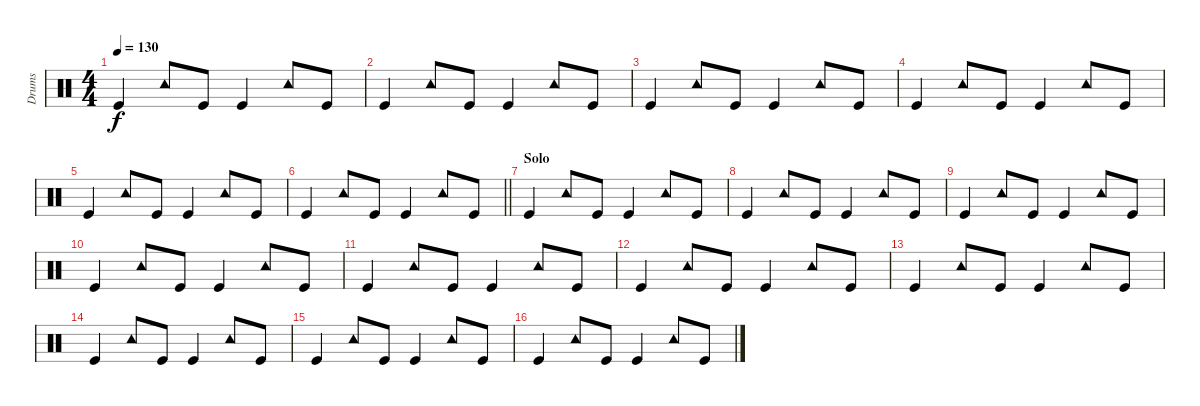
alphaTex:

\track ("Drums" "Drums") {instrument percussion}
\staff {score}
\articulation defaults
\ts (4 4)
\tempo 130
\clef neutral
\ks c "Kick (hit)".4{dy f} "Tambourine (hit)".8 "Kick (hit)".8 "Kick (hit)".4 "Tambourine (hit)".8 "Kick (hit)".8
|
"Kick (hit)".4 "Tambourine (hit)".8 "Kick (hit)".8 "Kick (hit)".4 "Tambourine (hit)".8 "Kick (hit)".8 |
"Kick (hit)".4 "Tambourine (hit)".8 "Kick (hit)".8 "Kick (hit)".4 "Tambourine (hit)".8 "Kick (hit)".8 |
"Kick (hit)".4 "Tambourine (hit)".8 "Kick (hit)".8 "Kick (hit)".4 "Tambourine (hit)".8 "Kick (hit)".8 |
"Kick (hit)".4 "Tambourine (hit)".8 "Kick (hit)".8 "Kick (hit)".4 "Tambourine (hit)".8 "Kick (hit)".8 |
\barLineRight lightlight "Kick (hit)".4 "Tambourine (hit)".8 "Kick (hit)".8 "Kick (hit)".4 "Tambourine (hit)".8 "Kick (hit)".8
|
\section ("" "Solo")
"Kick (hit)".4 "Tambourine (hit)".8 "Kick (hit)".8 "Kick (hit)".4 "Tambourine (hit)".8 "Kick (hit)".8 |
"Kick (hit)".4 "Tambourine (hit)".8 "Kick (hit)".8 "Kick (hit)".4 "Tambourine (hit)".8 "Kick (hit)".8 |
"Kick (hit)".4 "Tambourine (hit)".8 "Kick (hit)".8 "Kick (hit)".4 "Tambourine (hit)".8 "Kick (hit)".8 |
"Kick (hit)".4 "Tambourine (hit)".8 "Kick (hit)".8 "Kick (hit)".4 "Tambourine (hit)".8 "Kick (hit)".8 |
"Kick (hit)".4 "Tambourine (hit)".8 "Kick (hit)".8 "Kick (hit)".4 "Tambourine (hit)".8 "Kick (hit)".8 |
"Kick (hit)".4 "Tambourine (hit)".8 "Kick (hit)".8 "Kick (hit)".4 "Tambourine (hit)".8 "Kick (hit)".8 |
"Kick (hit)".4 "Tambourine (hit)".8 "Kick (hit)".8 "Kick (hit)".4 "Tambourine (hit)".8 "Kick (hit)".8 |
"Kick (hit)".4 "Tambourine (hit)".8 "Kick (hit)".8 "Kick (hit)".4 "Tambourine (hit)".8 "Kick (hit)".8 |
"Kick (hit)".4 "Tambourine (hit)".8 "Kick (hit)".8 "Kick (hit)".4 "Tambourine (hit)".8 "Kick (hit)".8 |
"Kick (hit)".4 "Tambourine (hit)".8 "Kick (hit)".8 "Kick (hit)".4 "Tambourine (hit)".8 "Kick (hit)".8
